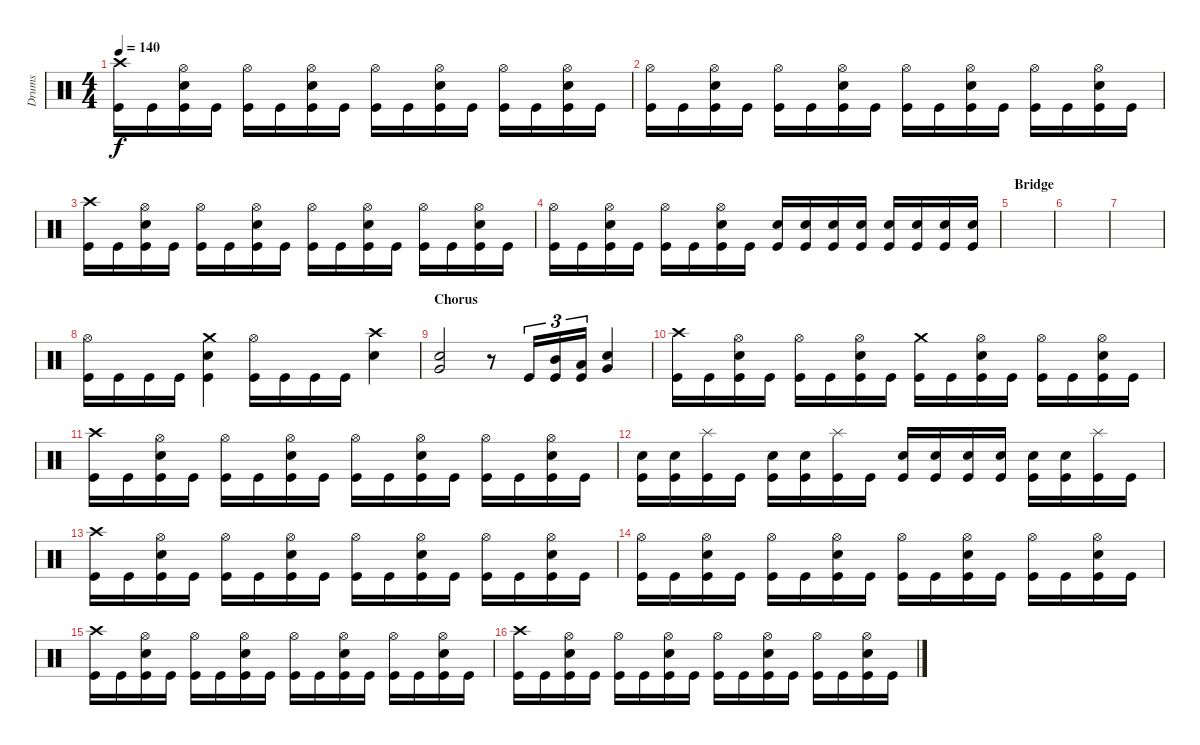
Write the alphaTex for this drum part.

\track ("Drums" "Drums") {instrument percussion}
\staff {score}
\articulation defaults
\ts (4 4)
\tempo 140
\clef neutral
\ks c
("Crash high (hit)" "Kick (hit)").16{dy f} "Kick (hit)".16 ("Hi-Hat (open)" "Electric Snare (hit)" "Kick (hit)").16 "Kick (hit)".16 ("Hi-Hat (open)" "Kick (hit)").16 "Kick (hit)".16 ("Hi-Hat (open)" "Electric Snare (hit)" "Kick (hit)").16 "Kick (hit)".16 ("Hi-Hat (open)" "Kick (hit)").16 "Kick (hit)".16 ("Hi-Hat (open)" "Electric Snare (hit)" "Kick (hit)").16 "Kick (hit)".16 ("Hi-Hat (open)" "Kick (hit)").16 "Kick (hit)".16 ("Hi-Hat (open)" "Electric Snare (hit)" "Kick (hit)").16 "Kick (hit)".16 |
("Hi-Hat (open)" "Kick (hit)").16 "Kick (hit)".16 ("Hi-Hat (open)" "Electric Snare (hit)" "Kick (hit)").16 "Kick (hit)".16 ("Hi-Hat (open)" "Kick (hit)").16 "Kick (hit)".16 ("Hi-Hat (open)" "Electric Snare (hit)" "Kick (hit)").16 "Kick (hit)".16 ("Hi-Hat (open)" "Kick (hit)").16 "Kick (hit)".16 ("Hi-Hat (open)" "Electric Snare (hit)" "Kick (hit)").16 "Kick (hit)".16 ("Hi-Hat (open)" "Kick (hit)").16 "Kick (hit)".16 ("Hi-Hat (open)" "Electric Snare (hit)" "Kick (hit)").16 "Kick (hit)".16 |
("Crash high (hit)" "Kick (hit)").16 "Kick (hit)".16 ("Hi-Hat (open)" "Electric Snare (hit)" "Kick (hit)").16 "Kick (hit)".16 ("Hi-Hat (open)" "Kick (hit)").16 "Kick (hit)".16 ("Hi-Hat (open)" "Electric Snare (hit)" "Kick (hit)").16 "Kick (hit)".16 ("Hi-Hat (open)" "Kick (hit)").16 "Kick (hit)".16 ("Hi-Hat (open)" "Electric Snare (hit)" "Kick (hit)").16 "Kick (hit)".16 ("Hi-Hat (open)" "Kick (hit)").16 "Kick (hit)".16 ("Hi-Hat (open)" "Electric Snare (hit)" "Kick (hit)").16 "Kick (hit)".16 |
("Hi-Hat (open)" "Kick (hit)").16 "Kick (hit)".16 ("Hi-Hat (open)" "Electric Snare (hit)" "Kick (hit)").16 "Kick (hit)".16 ("Hi-Hat (open)" "Kick (hit)").16 "Kick (hit)".16 ("Hi-Hat (open)" "Electric Snare (hit)" "Kick (hit)").16 "Kick (hit)".16 ("Electric Snare (hit)" "Kick (hit)").16 ("Electric Snare (hit)" "Kick (hit)").16 ("Electric Snare (hit)" "Kick (hit)").16 ("Electric Snare (hit)" "Kick (hit)").16 ("Electric Snare (hit)" "Kick (hit)").16 ("Electric Snare (hit)" "Kick (hit)").16 ("Electric Snare (hit)" "Kick (hit)").16 ("Electric Snare (hit)" "Kick (hit)").16 |
\section ("" "Bridge")
|
|
|
("Hi-Hat (open)" "Kick (hit)").16 "Kick (hit)".16 "Kick (hit)".16 "Kick (hit)".16 ("Crash medium (hit)" "Electric Snare (hit)" "Kick (hit)").4 ("Hi-Hat (open)" "Kick (hit)").16 "Kick (hit)".16 "Kick (hit)".16 "Kick (hit)".16 ("Crash high (hit)" "Electric Snare (hit)").4 |
\section ("" "Chorus")
("Very Low Tom (hit)" "Electric Snare (hit)").2 r.8 "Kick (hit)".16{tu (3 2)} ("Mid Tom (hit)" "Kick (hit)").16{tu (3 2)} ("Low Tom (hit)" "Kick (hit)").16{tu (3 2)} ("Very Low Tom (hit)" "Electric Snare (hit)").4 |
("Crash high (hit)" "Kick (hit)").16 "Kick (hit)".16 ("Hi-Hat (open)" "Electric Snare (hit)" "Kick (hit)").16 "Kick (hit)".16 ("Hi-Hat (open)" "Kick (hit)").16 "Kick (hit)".16 ("Hi-Hat (open)" "Electric Snare (hit)" "Kick (hit)").16 "Kick (hit)".16 ("Crash medium (hit)" "Kick (hit)").16 "Kick (hit)".16 ("Hi-Hat (open)" "Electric Snare (hit)" "Kick (hit)").16 "Kick (hit)".16 ("Hi-Hat (open)" "Kick (hit)").16 "Kick (hit)".16 ("Hi-Hat (open)" "Electric Snare (hit)" "Kick (hit)").16 "Kick (hit)".16 |
("Crash high (hit)" "Kick (hit)").16 "Kick (hit)".16 ("Hi-Hat (open)" "Electric Snare (hit)" "Kick (hit)").16 "Kick (hit)".16 ("Hi-Hat (open)" "Kick (hit)").16 "Kick (hit)".16 ("Hi-Hat (open)" "Electric Snare (hit)" "Kick (hit)").16 "Kick (hit)".16 ("Hi-Hat (open)" "Kick (hit)").16 "Kick (hit)".16 ("Hi-Hat (open)" "Electric Snare (hit)" "Kick (hit)").16 "Kick (hit)".16 ("Hi-Hat (open)" "Kick (hit)").16 "Kick (hit)".16 ("Hi-Hat (open)" "Electric Snare (hit)" "Kick (hit)").16 "Kick (hit)".16 |
("Electric Snare (hit)" "Kick (hit)").16 ("Electric Snare (hit)" "Kick (hit)").16 ("Splash (hit)" "Kick (hit)").16 "Kick (hit)".16 ("Electric Snare (hit)" "Kick (hit)").16 ("Electric Snare (hit)" "Kick (hit)").16 ("Splash (hit)" "Kick (hit)").16 "Kick (hit)".16 ("Electric Snare (hit)" "Kick (hit)").16 ("Electric Snare (hit)" "Kick (hit)").16 ("Electric Snare (hit)" "Kick (hit)").16 ("Electric Snare (hit)" "Kick (hit)").16 ("Electric Snare (hit)" "Kick (hit)").16 ("Electric Snare (hit)" "Kick (hit)").16 ("Splash (hit)" "Kick (hit)").16 "Kick (hit)".16 |
("Crash high (hit)" "Kick (hit)").16 "Kick (hit)".16 ("Hi-Hat (open)" "Electric Snare (hit)" "Kick (hit)").16 "Kick (hit)".16 ("Hi-Hat (open)" "Kick (hit)").16 "Kick (hit)".16 ("Hi-Hat (open)" "Electric Snare (hit)" "Kick (hit)").16 "Kick (hit)".16 ("Hi-Hat (open)" "Kick (hit)").16 "Kick (hit)".16 ("Hi-Hat (open)" "Electric Snare (hit)" "Kick (hit)").16 "Kick (hit)".16 ("Hi-Hat (open)" "Kick (hit)").16 "Kick (hit)".16 ("Hi-Hat (open)" "Electric Snare (hit)" "Kick (hit)").16 "Kick (hit)".16 |
("Hi-Hat (open)" "Kick (hit)").16 "Kick (hit)".16 ("Hi-Hat (open)" "Electric Snare (hit)" "Kick (hit)").16 "Kick (hit)".16 ("Hi-Hat (open)" "Kick (hit)").16 "Kick (hit)".16 ("Hi-Hat (open)" "Electric Snare (hit)" "Kick (hit)").16 "Kick (hit)".16 ("Hi-Hat (open)" "Kick (hit)").16 "Kick (hit)".16 ("Hi-Hat (open)" "Electric Snare (hit)" "Kick (hit)").16 "Kick (hit)".16 ("Hi-Hat (open)" "Kick (hit)").16 "Kick (hit)".16 ("Hi-Hat (open)" "Electric Snare (hit)" "Kick (hit)").16 "Kick (hit)".16 |
("Crash high (hit)" "Kick (hit)").16 "Kick (hit)".16 ("Hi-Hat (open)" "Electric Snare (hit)" "Kick (hit)").16 "Kick (hit)".16 ("Hi-Hat (open)" "Kick (hit)").16 "Kick (hit)".16 ("Hi-Hat (open)" "Electric Snare (hit)" "Kick (hit)").16 "Kick (hit)".16 ("Hi-Hat (open)" "Kick (hit)").16 "Kick (hit)".16 ("Hi-Hat (open)" "Electric Snare (hit)" "Kick (hit)").16 "Kick (hit)".16 ("Hi-Hat (open)" "Kick (hit)").16 "Kick (hit)".16 ("Hi-Hat (open)" "Electric Snare (hit)" "Kick (hit)").16 "Kick (hit)".16 |
("Crash high (hit)" "Kick (hit)").16 "Kick (hit)".16 ("Hi-Hat (open)" "Electric Snare (hit)" "Kick (hit)").16 "Kick (hit)".16 ("Hi-Hat (open)" "Kick (hit)").16 "Kick (hit)".16 ("Hi-Hat (open)" "Electric Snare (hit)" "Kick (hit)").16 "Kick (hit)".16 ("Hi-Hat (open)" "Kick (hit)").16 "Kick (hit)".16 ("Hi-Hat (open)" "Electric Snare (hit)" "Kick (hit)").16 "Kick (hit)".16 ("Hi-Hat (open)" "Kick (hit)").16 "Kick (hit)".16 ("Hi-Hat (open)" "Electric Snare (hit)" "Kick (hit)").16 "Kick (hit)".16
